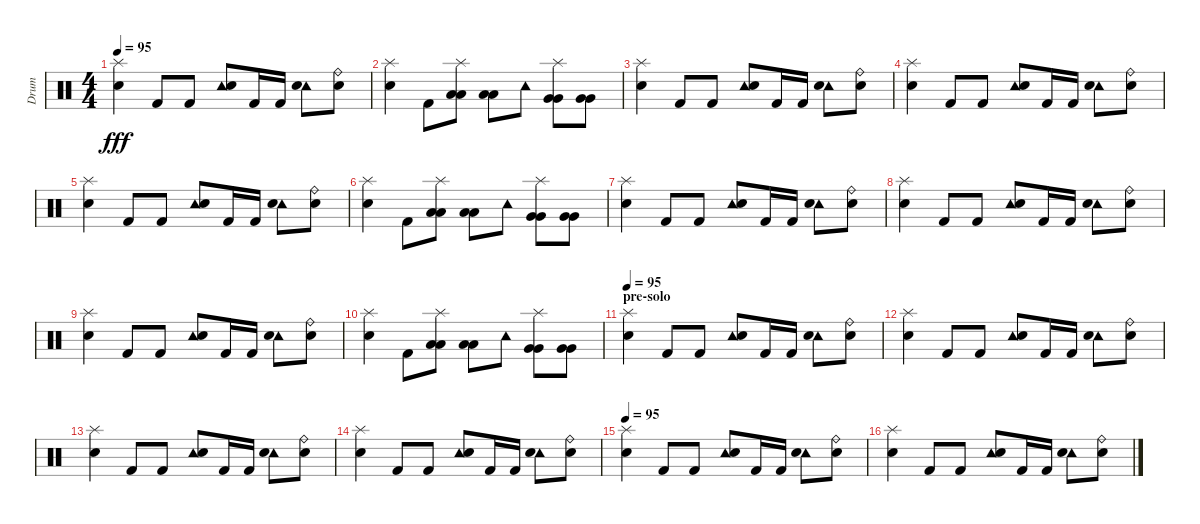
\track ("Drum" "Drum") {instrument percussion}
\staff {score}
\articulation defaults
\ts (4 4)
\tempo 95
\clef neutral
\ks c
("Splash (hit)" "Snare (hit) 2").4{dy fff} "Kick (hit) 2".8 "Kick (hit) 2".8 ("Tambourine (hit)" "Snare (hit) 2").8 "Kick (hit) 2".16 "Kick (hit) 2".16 ("Tambourine (hit)" "Snare (hit) 2").8 ("Snare (hit) 2" "Ride (bell)").8 |
("Splash (hit)" "Snare (hit) 2").4 "Kick (hit) 2".8 ("Low Tom (hit)" "Low Tom (hit)" "Splash (hit)").8 ("Low Tom (hit)" "Low Tom (hit)").8 "Tambourine (hit)".8 ("Very Low Tom (hit)" "Very Low Tom (hit)" "Splash (hit)").8 ("Very Low Tom (hit)" "Very Low Tom (hit)").8 |
("Splash (hit)" "Snare (hit) 2").4 "Kick (hit) 2".8 "Kick (hit) 2".8 ("Tambourine (hit)" "Snare (hit) 2").8 "Kick (hit) 2".16 "Kick (hit) 2".16 ("Tambourine (hit)" "Snare (hit) 2").8 ("Snare (hit) 2" "Ride (bell)").8 |
("Splash (hit)" "Snare (hit) 2").4 "Kick (hit) 2".8 "Kick (hit) 2".8 ("Tambourine (hit)" "Snare (hit) 2").8 "Kick (hit) 2".16 "Kick (hit) 2".16 ("Tambourine (hit)" "Snare (hit) 2").8 ("Snare (hit) 2" "Ride (bell)").8 |
("Splash (hit)" "Snare (hit) 2").4 "Kick (hit) 2".8 "Kick (hit) 2".8 ("Tambourine (hit)" "Snare (hit) 2").8 "Kick (hit) 2".16 "Kick (hit) 2".16 ("Tambourine (hit)" "Snare (hit) 2").8 ("Snare (hit) 2" "Ride (bell)").8 |
("Splash (hit)" "Snare (hit) 2").4 "Kick (hit) 2".8 ("Low Tom (hit)" "Low Tom (hit)" "Splash (hit)").8 ("Low Tom (hit)" "Low Tom (hit)").8 "Tambourine (hit)".8 ("Very Low Tom (hit)" "Very Low Tom (hit)" "Splash (hit)").8 ("Very Low Tom (hit)" "Very Low Tom (hit)").8 |
("Splash (hit)" "Snare (hit) 2").4 "Kick (hit) 2".8 "Kick (hit) 2".8 ("Tambourine (hit)" "Snare (hit) 2").8 "Kick (hit) 2".16 "Kick (hit) 2".16 ("Tambourine (hit)" "Snare (hit) 2").8 ("Snare (hit) 2" "Ride (bell)").8 |
("Splash (hit)" "Snare (hit) 2").4 "Kick (hit) 2".8 "Kick (hit) 2".8 ("Tambourine (hit)" "Snare (hit) 2").8 "Kick (hit) 2".16 "Kick (hit) 2".16 ("Tambourine (hit)" "Snare (hit) 2").8 ("Snare (hit) 2" "Ride (bell)").8 |
("Splash (hit)" "Snare (hit) 2").4 "Kick (hit) 2".8 "Kick (hit) 2".8 ("Tambourine (hit)" "Snare (hit) 2").8 "Kick (hit) 2".16 "Kick (hit) 2".16 ("Tambourine (hit)" "Snare (hit) 2").8 ("Snare (hit) 2" "Ride (bell)").8 |
("Splash (hit)" "Snare (hit) 2").4 "Kick (hit) 2".8 ("Low Tom (hit)" "Low Tom (hit)" "Splash (hit)").8 ("Low Tom (hit)" "Low Tom (hit)").8 "Tambourine (hit)".8 ("Very Low Tom (hit)" "Very Low Tom (hit)" "Splash (hit)").8 ("Very Low Tom (hit)" "Very Low Tom (hit)").8 |
\section ("" "pre-solo")
\tempo 95
("Splash (hit)" "Snare (hit) 2").4 "Kick (hit) 2".8 "Kick (hit) 2".8 ("Tambourine (hit)" "Snare (hit) 2").8 "Kick (hit) 2".16 "Kick (hit) 2".16 ("Tambourine (hit)" "Snare (hit) 2").8 ("Snare (hit) 2" "Ride (bell)").8 |
("Splash (hit)" "Snare (hit) 2").4 "Kick (hit) 2".8 "Kick (hit) 2".8 ("Tambourine (hit)" "Snare (hit) 2").8 "Kick (hit) 2".16 "Kick (hit) 2".16 ("Tambourine (hit)" "Snare (hit) 2").8 ("Snare (hit) 2" "Ride (bell)").8 |
("Splash (hit)" "Snare (hit) 2").4 "Kick (hit) 2".8 "Kick (hit) 2".8 ("Tambourine (hit)" "Snare (hit) 2").8 "Kick (hit) 2".16 "Kick (hit) 2".16 ("Tambourine (hit)" "Snare (hit) 2").8 ("Snare (hit) 2" "Ride (bell)").8 |
("Splash (hit)" "Snare (hit) 2").4 "Kick (hit) 2".8 "Kick (hit) 2".8 ("Tambourine (hit)" "Snare (hit) 2").8 "Kick (hit) 2".16 "Kick (hit) 2".16 ("Tambourine (hit)" "Snare (hit) 2").8 ("Snare (hit) 2" "Ride (bell)").8 |
\tempo 95
("Splash (hit)" "Snare (hit) 2").4 "Kick (hit) 2".8 "Kick (hit) 2".8 ("Tambourine (hit)" "Snare (hit) 2").8 "Kick (hit) 2".16 "Kick (hit) 2".16 ("Tambourine (hit)" "Snare (hit) 2").8 ("Snare (hit) 2" "Ride (bell)").8 |
("Splash (hit)" "Snare (hit) 2").4 "Kick (hit) 2".8 "Kick (hit) 2".8 ("Tambourine (hit)" "Snare (hit) 2").8 "Kick (hit) 2".16 "Kick (hit) 2".16 ("Tambourine (hit)" "Snare (hit) 2").8 ("Snare (hit) 2" "Ride (bell)").8
